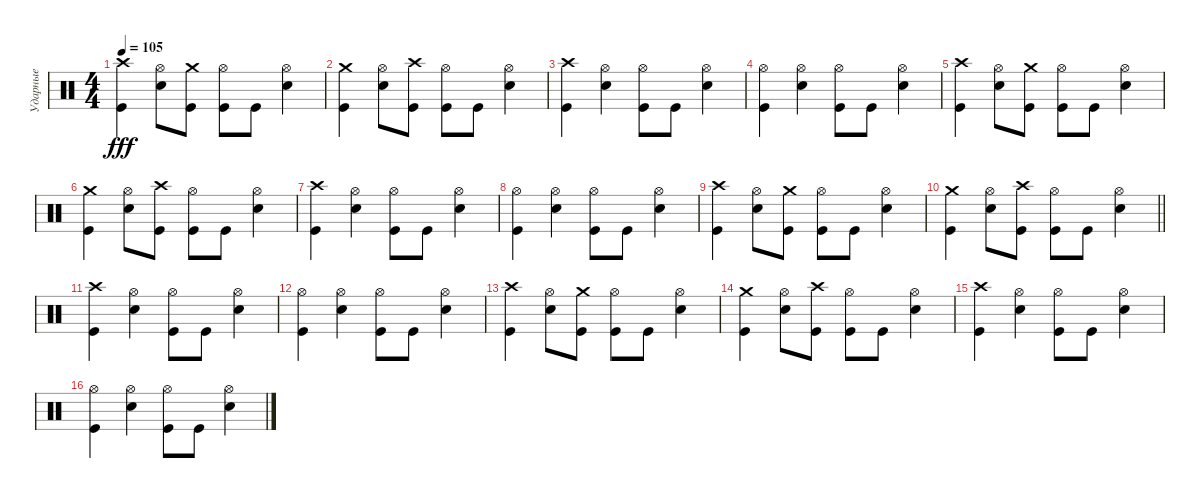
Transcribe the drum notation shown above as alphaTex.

\track ("Ударные" "Ударные") {instrument percussion}
\staff {score}
\articulation defaults
\ts (4 4)
\tempo 105
\clef neutral
\ks c
("Crash high (hit)" "Kick (hit)").4{dy fff} ("Hi-Hat (open)" "Electric Snare (hit)").8 ("Crash medium (hit)" "Kick (hit)").8 ("Hi-Hat (open)" "Kick (hit)").8 "Kick (hit)".8 ("Hi-Hat (open)" "Electric Snare (hit)").4 |
("Crash medium (hit)" "Kick (hit)").4 ("Hi-Hat (open)" "Electric Snare (hit)").8 ("Crash high (hit)" "Kick (hit)").8 ("Hi-Hat (open)" "Kick (hit)").8 "Kick (hit)".8 ("Hi-Hat (open)" "Electric Snare (hit)").4 |
("Crash high (hit)" "Kick (hit)").4 ("Hi-Hat (open)" "Electric Snare (hit)").4 ("Hi-Hat (open)" "Kick (hit)").8 "Kick (hit)".8 ("Hi-Hat (open)" "Electric Snare (hit)").4 |
("Hi-Hat (open)" "Kick (hit)").4 ("Hi-Hat (open)" "Electric Snare (hit)").4 ("Hi-Hat (open)" "Kick (hit)").8 "Kick (hit)".8 ("Hi-Hat (open)" "Electric Snare (hit)").4 |
("Crash high (hit)" "Kick (hit)").4 ("Hi-Hat (open)" "Electric Snare (hit)").8 ("Crash medium (hit)" "Kick (hit)").8 ("Hi-Hat (open)" "Kick (hit)").8 "Kick (hit)".8 ("Hi-Hat (open)" "Electric Snare (hit)").4 |
("Crash medium (hit)" "Kick (hit)").4 ("Hi-Hat (open)" "Electric Snare (hit)").8 ("Crash high (hit)" "Kick (hit)").8 ("Hi-Hat (open)" "Kick (hit)").8 "Kick (hit)".8 ("Hi-Hat (open)" "Electric Snare (hit)").4 |
("Crash high (hit)" "Kick (hit)").4{volume 16} ("Hi-Hat (open)" "Electric Snare (hit)").4 ("Hi-Hat (open)" "Kick (hit)").8 "Kick (hit)".8 ("Hi-Hat (open)" "Electric Snare (hit)").4 |
("Hi-Hat (open)" "Kick (hit)").4 ("Hi-Hat (open)" "Electric Snare (hit)").4 ("Hi-Hat (open)" "Kick (hit)").8 "Kick (hit)".8 ("Hi-Hat (open)" "Electric Snare (hit)").4 |
("Crash high (hit)" "Kick (hit)").4 ("Hi-Hat (open)" "Electric Snare (hit)").8 ("Crash medium (hit)" "Kick (hit)").8 ("Hi-Hat (open)" "Kick (hit)").8 "Kick (hit)".8 ("Hi-Hat (open)" "Electric Snare (hit)").4 |
\barLineRight lightlight
("Crash medium (hit)" "Kick (hit)").4 ("Hi-Hat (open)" "Electric Snare (hit)").8 ("Crash high (hit)" "Kick (hit)").8 ("Hi-Hat (open)" "Kick (hit)").8 "Kick (hit)".8 ("Hi-Hat (open)" "Electric Snare (hit)").4 |
\section ("" "")
("Crash high (hit)" "Kick (hit)").4{volume 16} ("Hi-Hat (open)" "Electric Snare (hit)").4 ("Hi-Hat (open)" "Kick (hit)").8 "Kick (hit)".8 ("Hi-Hat (open)" "Electric Snare (hit)").4 |
("Hi-Hat (open)" "Kick (hit)").4 ("Hi-Hat (open)" "Electric Snare (hit)").4 ("Hi-Hat (open)" "Kick (hit)").8 "Kick (hit)".8 ("Hi-Hat (open)" "Electric Snare (hit)").4 |
("Crash high (hit)" "Kick (hit)").4 ("Hi-Hat (open)" "Electric Snare (hit)").8 ("Crash medium (hit)" "Kick (hit)").8 ("Hi-Hat (open)" "Kick (hit)").8 "Kick (hit)".8 ("Hi-Hat (open)" "Electric Snare (hit)").4 |
("Crash medium (hit)" "Kick (hit)").4 ("Hi-Hat (open)" "Electric Snare (hit)").8 ("Crash high (hit)" "Kick (hit)").8 ("Hi-Hat (open)" "Kick (hit)").8 "Kick (hit)".8 ("Hi-Hat (open)" "Electric Snare (hit)").4 |
("Crash high (hit)" "Kick (hit)").4 ("Hi-Hat (open)" "Electric Snare (hit)").4 ("Hi-Hat (open)" "Kick (hit)").8 "Kick (hit)".8 ("Hi-Hat (open)" "Electric Snare (hit)").4 |
("Hi-Hat (open)" "Kick (hit)").4 ("Hi-Hat (open)" "Electric Snare (hit)").4 ("Hi-Hat (open)" "Kick (hit)").8 "Kick (hit)".8 ("Hi-Hat (open)" "Electric Snare (hit)").4
